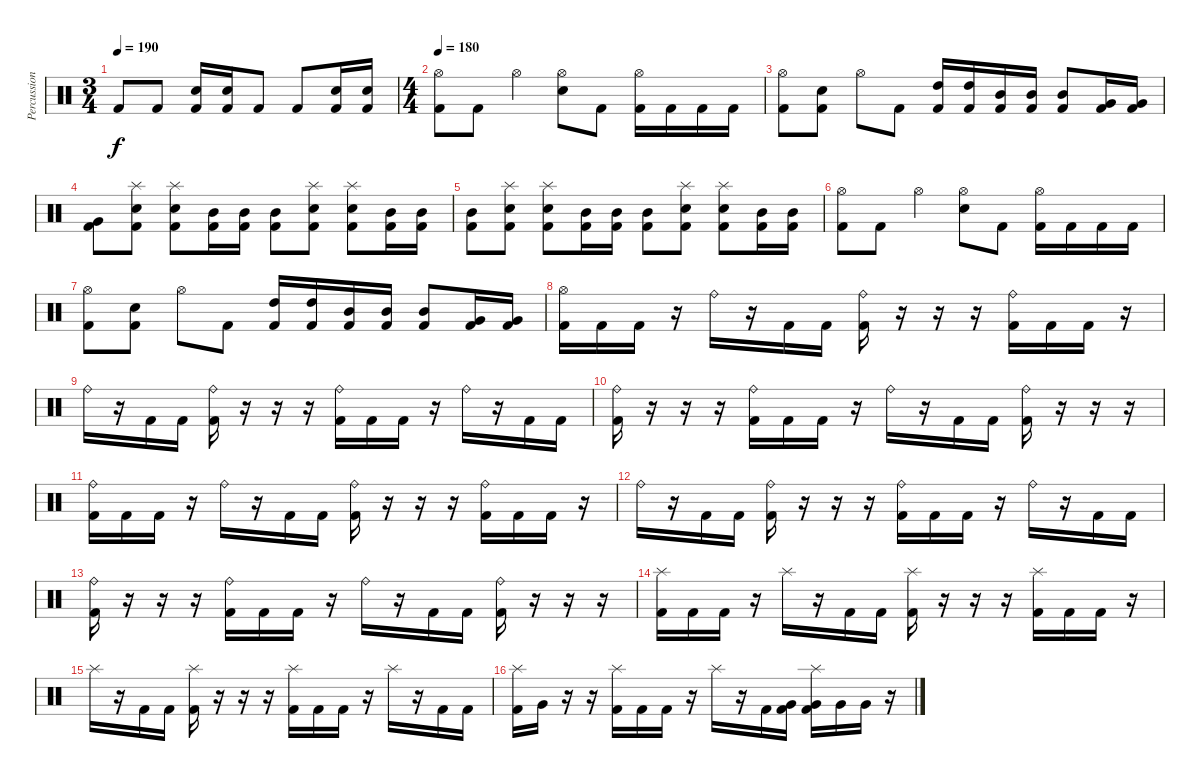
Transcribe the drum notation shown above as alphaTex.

\track ("Percussion" "Percussion") {instrument percussion}
\staff {score}
\articulation defaults
\ts (3 4)
\tempo 190
\clef neutral
\ks c "Kick (hit) 2".8{dy f} "Kick (hit) 2".8
("Electric Snare (hit)" "Kick (hit) 2").16 ("Electric Snare (hit)" "Kick (hit) 2").16 "Kick (hit) 2".8 "Kick (hit) 2".8 ("Electric Snare (hit)" "Kick (hit) 2").16 ("Electric Snare (hit)" "Kick (hit) 2").16 |
\ts (4 4)
\tempo 180
("Hi-Hat (open)" "Kick (hit) 2").8 "Kick (hit) 2".8 "Hi-Hat (open)".4 ("Hi-Hat (open)" "Electric Snare (hit)").8 "Kick (hit) 2".8 ("Hi-Hat (open)" "Kick (hit) 2").16 "Kick (hit) 2".16 "Kick (hit) 2".16 "Kick (hit) 2".16 |
("Hi-Hat (open)" "Kick (hit) 2").8 ("Electric Snare (hit)" "Kick (hit) 2").8 "Hi-Hat (open)".8 "Kick (hit) 2".8 ("High Tom (hit)" "Kick (hit) 2").16 ("High Tom (hit)" "Kick (hit) 2").16 ("Mid Tom (hit)" "Kick (hit) 2").16 ("Mid Tom (hit)" "Kick (hit) 2").16 ("Mid Tom (hit)" "Kick (hit) 2").8 ("Very Low Tom (hit)" "Kick (hit) 2").16 ("Very Low Tom (hit)" "Kick (hit) 2").16 |
("Very Low Tom (hit)" "Kick (hit) 2").8 ("Splash (hit)" "Electric Snare (hit)" "Kick (hit) 2").8 ("Splash (hit)" "Electric Snare (hit)" "Kick (hit) 2").8 ("Mid Tom (hit)" "Kick (hit) 2").16 ("Mid Tom (hit)" "Kick (hit) 2").16 ("Mid Tom (hit)" "Kick (hit) 2").8 ("Splash (hit)" "Electric Snare (hit)" "Kick (hit) 2").8 ("Splash (hit)" "Electric Snare (hit)" "Kick (hit) 2").8 ("Mid Tom (hit)" "Kick (hit) 2").16 ("Mid Tom (hit)" "Kick (hit) 2").16 |
("Mid Tom (hit)" "Kick (hit) 2").8 ("Splash (hit)" "Electric Snare (hit)" "Kick (hit) 2").8 ("Splash (hit)" "Electric Snare (hit)" "Kick (hit) 2").8 ("Mid Tom (hit)" "Kick (hit) 2").16 ("Mid Tom (hit)" "Kick (hit) 2").16 ("Mid Tom (hit)" "Kick (hit) 2").8 ("Splash (hit)" "Electric Snare (hit)" "Kick (hit) 2").8 ("Splash (hit)" "Electric Snare (hit)" "Kick (hit) 2").8 ("Mid Tom (hit)" "Kick (hit) 2").16 ("Mid Tom (hit)" "Kick (hit) 2").16 |
("Hi-Hat (open)" "Kick (hit) 2").8 "Kick (hit) 2".8 "Hi-Hat (open)".4 ("Hi-Hat (open)" "Electric Snare (hit)").8 "Kick (hit) 2".8 ("Hi-Hat (open)" "Kick (hit) 2").16 "Kick (hit) 2".16 "Kick (hit) 2".16 "Kick (hit) 2".16 |
("Hi-Hat (open)" "Kick (hit) 2").8 ("Electric Snare (hit)" "Kick (hit) 2").8 "Hi-Hat (open)".8 "Kick (hit) 2".8 ("High Tom (hit)" "Kick (hit) 2").16 ("High Tom (hit)" "Kick (hit) 2").16 ("Mid Tom (hit)" "Kick (hit) 2").16 ("Mid Tom (hit)" "Kick (hit) 2").16 ("Mid Tom (hit)" "Kick (hit) 2").8 ("Very Low Tom (hit)" "Kick (hit) 2").16 ("Very Low Tom (hit)" "Kick (hit) 2").16 |
("Hi-Hat (open)" "Kick (hit) 2").16 "Kick (hit) 2".16 "Kick (hit) 2".16 r.16 "Ride (bell)".16 r.16 "Kick (hit) 2".16 "Kick (hit) 2".16 ("Ride (bell)" "Kick (hit) 2").16 r.16 r.16 r.16 ("Ride (bell)" "Kick (hit) 2").16 "Kick (hit) 2".16 "Kick (hit) 2".16 r.16 |
"Ride (bell)".16 r.16 "Kick (hit) 2".16 "Kick (hit) 2".16 ("Ride (bell)" "Kick (hit) 2").16 r.16 r.16 r.16 ("Ride (bell)" "Kick (hit) 2").16 "Kick (hit) 2".16 "Kick (hit) 2".16 r.16 "Ride (bell)".16 r.16 "Kick (hit) 2".16 "Kick (hit) 2".16 |
("Ride (bell)" "Kick (hit) 2").16 r.16 r.16 r.16 ("Ride (bell)" "Kick (hit) 2").16 "Kick (hit) 2".16 "Kick (hit) 2".16 r.16 "Ride (bell)".16 r.16 "Kick (hit) 2".16 "Kick (hit) 2".16 ("Ride (bell)" "Kick (hit) 2").16 r.16 r.16 r.16 |
("Ride (bell)" "Kick (hit) 2").16 "Kick (hit) 2".16 "Kick (hit) 2".16 r.16 "Ride (bell)".16 r.16 "Kick (hit) 2".16 "Kick (hit) 2".16 ("Ride (bell)" "Kick (hit) 2").16 r.16 r.16 r.16 ("Ride (bell)" "Kick (hit) 2").16 "Kick (hit) 2".16 "Kick (hit) 2".16 r.16 |
"Ride (bell)".16 r.16 "Kick (hit) 2".16 "Kick (hit) 2".16 ("Ride (bell)" "Kick (hit) 2").16 r.16 r.16 r.16 ("Ride (bell)" "Kick (hit) 2").16 "Kick (hit) 2".16 "Kick (hit) 2".16 r.16 "Ride (bell)".16 r.16 "Kick (hit) 2".16 "Kick (hit) 2".16 |
("Ride (bell)" "Kick (hit) 2").16 r.16 r.16 r.16 ("Ride (bell)" "Kick (hit) 2").16 "Kick (hit) 2".16 "Kick (hit) 2".16 r.16 "Ride (bell)".16 r.16 "Kick (hit) 2".16 "Kick (hit) 2".16 ("Ride (bell)" "Kick (hit) 2").16 r.16 r.16 r.16 |
("Splash (hit)" "Kick (hit) 2").16 "Kick (hit) 2".16 "Kick (hit) 2".16 r.16 "Splash (hit)".16 r.16 "Kick (hit) 2".16 "Kick (hit) 2".16 ("Splash (hit)" "Kick (hit) 2").16 r.16 r.16 r.16 ("Splash (hit)" "Kick (hit) 2").16 "Kick (hit) 2".16 "Kick (hit) 2".16 r.16 |
"Splash (hit)".16 r.16 "Kick (hit) 2".16 "Kick (hit) 2".16 ("Splash (hit)" "Kick (hit) 2").16 r.16 r.16 r.16 ("Splash (hit)" "Kick (hit) 2").16 "Kick (hit) 2".16 "Kick (hit) 2".16 r.16 "Splash (hit)".16 r.16 "Kick (hit) 2".16 "Kick (hit) 2".16 |
("Splash (hit)" "Kick (hit) 2").16 "Very Low Tom (hit)".16 r.16 r.16 ("Splash (hit)" "Kick (hit) 2").16 "Kick (hit) 2".16 "Kick (hit) 2".16 r.16 "Splash (hit)".16 r.16 "Kick (hit) 2".16 ("Very Low Tom (hit)" "Kick (hit) 2").16 ("Splash (hit)" "Very Low Tom (hit)" "Kick (hit) 2").16 "Very Low Tom (hit)".16 "Very Low Tom (hit)".16 r.16
